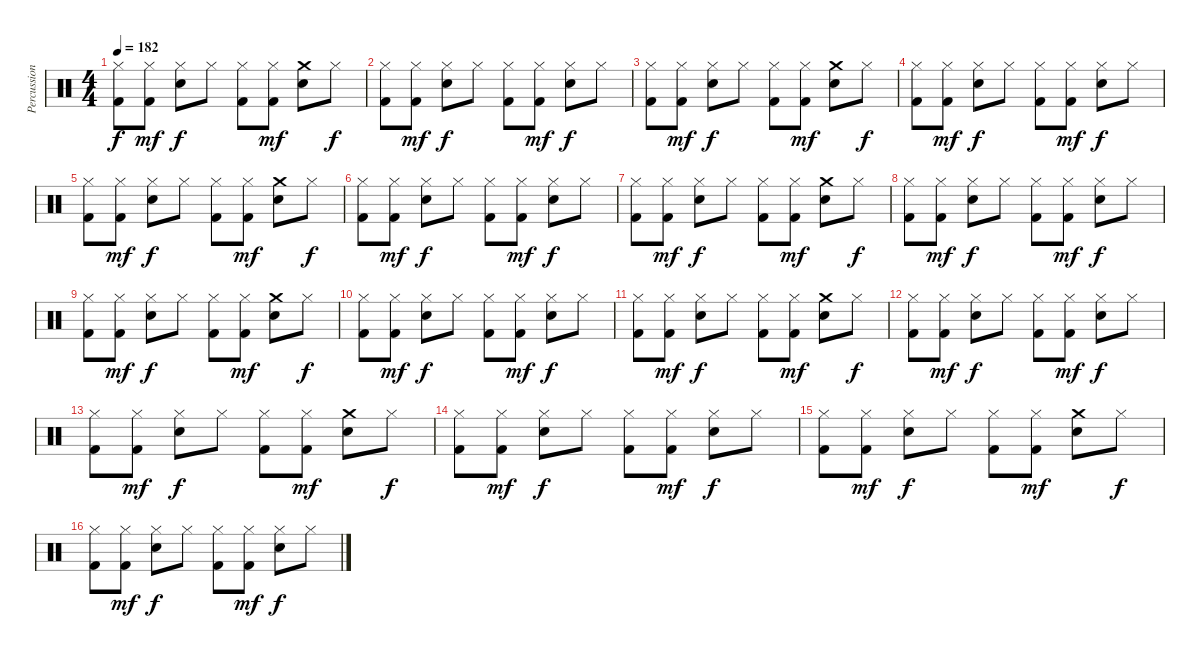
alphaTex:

\track ("Percussion" "Percussion") {instrument percussion}
\staff {score}
\articulation defaults
\ts (4 4)
\tempo 182
\clef neutral
\ks c
("Hi-Hat (closed)" "Kick (hit) 2").8{dy f} ("Hi-Hat (closed)" "Kick (hit) 2").8{dy mf} ("Hi-Hat (closed)" "Snare (hit) 2").8{dy f} "Hi-Hat (closed)".8 ("Hi-Hat (closed)" "Kick (hit) 2").8 ("Hi-Hat (closed)" "Kick (hit) 2").8{dy mf} ("Crash medium (hit)" "Snare (hit) 2").8 "Hi-Hat (closed)".8{dy f} |
("Hi-Hat (closed)" "Kick (hit) 2").8 ("Hi-Hat (closed)" "Kick (hit) 2").8{dy mf} ("Hi-Hat (closed)" "Snare (hit) 2").8{dy f} "Hi-Hat (closed)".8 ("Hi-Hat (closed)" "Kick (hit) 2").8 ("Hi-Hat (closed)" "Kick (hit) 2").8{dy mf} ("Hi-Hat (closed)" "Snare (hit) 2").8{dy f} "Hi-Hat (closed)".8 |
("Hi-Hat (closed)" "Kick (hit) 2").8 ("Hi-Hat (closed)" "Kick (hit) 2").8{dy mf} ("Hi-Hat (closed)" "Snare (hit) 2").8{dy f} "Hi-Hat (closed)".8 ("Hi-Hat (closed)" "Kick (hit) 2").8 ("Hi-Hat (closed)" "Kick (hit) 2").8{dy mf} ("Crash medium (hit)" "Snare (hit) 2").8 "Hi-Hat (closed)".8{dy f} |
("Hi-Hat (closed)" "Kick (hit) 2").8 ("Hi-Hat (closed)" "Kick (hit) 2").8{dy mf} ("Hi-Hat (closed)" "Snare (hit) 2").8{dy f} "Hi-Hat (closed)".8 ("Hi-Hat (closed)" "Kick (hit) 2").8 ("Hi-Hat (closed)" "Kick (hit) 2").8{dy mf} ("Hi-Hat (closed)" "Snare (hit) 2").8{dy f} "Hi-Hat (closed)".8 |
("Hi-Hat (closed)" "Kick (hit) 2").8 ("Hi-Hat (closed)" "Kick (hit) 2").8{dy mf} ("Hi-Hat (closed)" "Snare (hit) 2").8{dy f} "Hi-Hat (closed)".8 ("Hi-Hat (closed)" "Kick (hit) 2").8 ("Hi-Hat (closed)" "Kick (hit) 2").8{dy mf} ("Crash medium (hit)" "Snare (hit) 2").8 "Hi-Hat (closed)".8{dy f} |
("Hi-Hat (closed)" "Kick (hit) 2").8 ("Hi-Hat (closed)" "Kick (hit) 2").8{dy mf} ("Hi-Hat (closed)" "Snare (hit) 2").8{dy f} "Hi-Hat (closed)".8 ("Hi-Hat (closed)" "Kick (hit) 2").8 ("Hi-Hat (closed)" "Kick (hit) 2").8{dy mf} ("Hi-Hat (closed)" "Snare (hit) 2").8{dy f} "Hi-Hat (closed)".8 |
("Hi-Hat (closed)" "Kick (hit) 2").8 ("Hi-Hat (closed)" "Kick (hit) 2").8{dy mf} ("Hi-Hat (closed)" "Snare (hit) 2").8{dy f} "Hi-Hat (closed)".8 ("Hi-Hat (closed)" "Kick (hit) 2").8 ("Hi-Hat (closed)" "Kick (hit) 2").8{dy mf} ("Crash medium (hit)" "Snare (hit) 2").8 "Hi-Hat (closed)".8{dy f} |
("Hi-Hat (closed)" "Kick (hit) 2").8 ("Hi-Hat (closed)" "Kick (hit) 2").8{dy mf} ("Hi-Hat (closed)" "Snare (hit) 2").8{dy f} "Hi-Hat (closed)".8 ("Hi-Hat (closed)" "Kick (hit) 2").8 ("Hi-Hat (closed)" "Kick (hit) 2").8{dy mf} ("Hi-Hat (closed)" "Snare (hit) 2").8{dy f} "Hi-Hat (closed)".8 |
("Hi-Hat (closed)" "Kick (hit) 2").8 ("Hi-Hat (closed)" "Kick (hit) 2").8{dy mf} ("Hi-Hat (closed)" "Snare (hit) 2").8{dy f} "Hi-Hat (closed)".8 ("Hi-Hat (closed)" "Kick (hit) 2").8 ("Hi-Hat (closed)" "Kick (hit) 2").8{dy mf} ("Crash medium (hit)" "Snare (hit) 2").8 "Hi-Hat (closed)".8{dy f} |
("Hi-Hat (closed)" "Kick (hit) 2").8 ("Hi-Hat (closed)" "Kick (hit) 2").8{dy mf} ("Hi-Hat (closed)" "Snare (hit) 2").8{dy f} "Hi-Hat (closed)".8 ("Hi-Hat (closed)" "Kick (hit) 2").8 ("Hi-Hat (closed)" "Kick (hit) 2").8{dy mf} ("Hi-Hat (closed)" "Snare (hit) 2").8{dy f} "Hi-Hat (closed)".8 |
("Hi-Hat (closed)" "Kick (hit) 2").8 ("Hi-Hat (closed)" "Kick (hit) 2").8{dy mf} ("Hi-Hat (closed)" "Snare (hit) 2").8{dy f} "Hi-Hat (closed)".8 ("Hi-Hat (closed)" "Kick (hit) 2").8 ("Hi-Hat (closed)" "Kick (hit) 2").8{dy mf} ("Crash medium (hit)" "Snare (hit) 2").8 "Hi-Hat (closed)".8{dy f} |
("Hi-Hat (closed)" "Kick (hit) 2").8 ("Hi-Hat (closed)" "Kick (hit) 2").8{dy mf} ("Hi-Hat (closed)" "Snare (hit) 2").8{dy f} "Hi-Hat (closed)".8 ("Hi-Hat (closed)" "Kick (hit) 2").8 ("Hi-Hat (closed)" "Kick (hit) 2").8{dy mf} ("Hi-Hat (closed)" "Snare (hit) 2").8{dy f} "Hi-Hat (closed)".8 |
("Hi-Hat (closed)" "Kick (hit) 2").8 ("Hi-Hat (closed)" "Kick (hit) 2").8{dy mf} ("Hi-Hat (closed)" "Snare (hit) 2").8{dy f} "Hi-Hat (closed)".8 ("Hi-Hat (closed)" "Kick (hit) 2").8 ("Hi-Hat (closed)" "Kick (hit) 2").8{dy mf} ("Crash medium (hit)" "Snare (hit) 2").8 "Hi-Hat (closed)".8{dy f} |
("Hi-Hat (closed)" "Kick (hit) 2").8 ("Hi-Hat (closed)" "Kick (hit) 2").8{dy mf} ("Hi-Hat (closed)" "Snare (hit) 2").8{dy f} "Hi-Hat (closed)".8 ("Hi-Hat (closed)" "Kick (hit) 2").8 ("Hi-Hat (closed)" "Kick (hit) 2").8{dy mf} ("Hi-Hat (closed)" "Snare (hit) 2").8{dy f} "Hi-Hat (closed)".8 |
("Hi-Hat (closed)" "Kick (hit) 2").8 ("Hi-Hat (closed)" "Kick (hit) 2").8{dy mf} ("Hi-Hat (closed)" "Snare (hit) 2").8{dy f} "Hi-Hat (closed)".8 ("Hi-Hat (closed)" "Kick (hit) 2").8 ("Hi-Hat (closed)" "Kick (hit) 2").8{dy mf} ("Crash medium (hit)" "Snare (hit) 2").8 "Hi-Hat (closed)".8{dy f} |
("Hi-Hat (closed)" "Kick (hit) 2").8 ("Hi-Hat (closed)" "Kick (hit) 2").8{dy mf} ("Hi-Hat (closed)" "Snare (hit) 2").8{dy f} "Hi-Hat (closed)".8 ("Hi-Hat (closed)" "Kick (hit) 2").8 ("Hi-Hat (closed)" "Kick (hit) 2").8{dy mf} ("Hi-Hat (closed)" "Snare (hit) 2").8{dy f} "Hi-Hat (closed)".8
